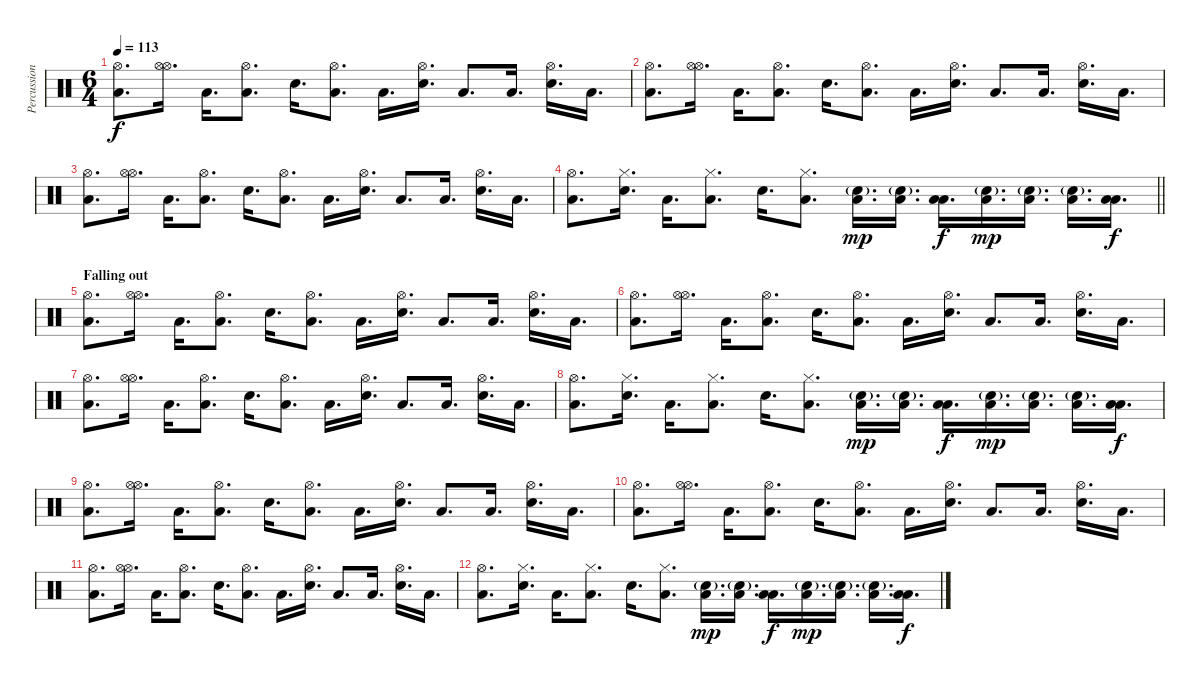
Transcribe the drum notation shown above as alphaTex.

\track ("Percussion" "Percussion") {instrument percussion}
\staff {score}
\articulation defaults
\ts (6 4)
\tempo 113
\clef neutral
\ks c
("Low Tom (hit)" "Hi-Hat (open)").8{d dy f} ("Hi-Hat (open)" "Hi-Hat (open)").16{d} "Low Floor Tom (hit)".16{d} ("Low Floor Tom (hit)" "Hi-Hat (open)").8{d} "Snare (hit) 2".16{d} ("Low Tom (hit)" "Hi-Hat (open)").8{d} "Low Tom (hit)".16{d} ("Hi-Hat (open)" "Snare (hit) 2").16{d} "Low Tom (hit)".8{d} "Low Tom (hit)".16{d} ("Hi-Hat (open)" "Snare (hit) 2").16{d} "Low Tom (hit)".16{d} |
("Low Tom (hit)" "Hi-Hat (open)").8{d} ("Hi-Hat (open)" "Hi-Hat (open)").16{d} "Low Floor Tom (hit)".16{d} ("Low Floor Tom (hit)" "Hi-Hat (open)").8{d} "Snare (hit) 2".16{d} ("Low Tom (hit)" "Hi-Hat (open)").8{d} "Low Tom (hit)".16{d} ("Hi-Hat (open)" "Snare (hit) 2").16{d} "Low Tom (hit)".8{d} "Low Tom (hit)".16{d} ("Hi-Hat (open)" "Snare (hit) 2").16{d} "Low Tom (hit)".16{d} |
("Low Tom (hit)" "Hi-Hat (open)").8{d} ("Hi-Hat (open)" "Hi-Hat (open)").16{d} "Low Floor Tom (hit)".16{d} ("Low Floor Tom (hit)" "Hi-Hat (open)").8{d} "Snare (hit) 2".16{d} ("Low Tom (hit)" "Hi-Hat (open)").8{d} "Low Tom (hit)".16{d} ("Hi-Hat (open)" "Snare (hit) 2").16{d} "Low Tom (hit)".8{d} "Low Tom (hit)".16{d} ("Hi-Hat (open)" "Snare (hit) 2").16{d} "Low Tom (hit)".16{d} |
\barLineRight lightlight
("Low Tom (hit)" "Hi-Hat (open)").8{d} ("Snare (hit) 2" "Hi-Hat (closed)").16{d} "Low Floor Tom (hit)".16{d} ("Low Floor Tom (hit)" "Hi-Hat (closed)").8{d} "Snare (hit) 2".16{d} ("Low Tom (hit)" "Hi-Hat (closed)").8{d} ("Low Tom (hit)" "Electric Snare (hit)"{g}).16{d dy mp} ("Low Tom (hit)" "Electric Snare (hit)"{g}).16{d} ("Low Tom (hit)" "Low Floor Tom (hit)").16{d dy f} ("Low Tom (hit)" "Electric Snare (hit)"{g}).16{d dy mp} ("Low Tom (hit)" "Electric Snare (hit)"{g}).16{d} ("Low Tom (hit)" "Electric Snare (hit)"{g}).16{d} ("Low Tom (hit)" "Low Floor Tom (hit)").16{d dy f} |
\section ("" "Falling out")
("Low Tom (hit)" "Hi-Hat (open)").8{d} ("Hi-Hat (open)" "Hi-Hat (open)").16{d} "Low Floor Tom (hit)".16{d} ("Low Floor Tom (hit)" "Hi-Hat (open)").8{d} "Snare (hit) 2".16{d} ("Low Tom (hit)" "Hi-Hat (open)").8{d} "Low Tom (hit)".16{d} ("Hi-Hat (open)" "Snare (hit) 2").16{d} "Low Tom (hit)".8{d} "Low Tom (hit)".16{d} ("Hi-Hat (open)" "Snare (hit) 2").16{d} "Low Tom (hit)".16{d} |
("Low Tom (hit)" "Hi-Hat (open)").8{d} ("Hi-Hat (open)" "Hi-Hat (open)").16{d} "Low Floor Tom (hit)".16{d} ("Low Floor Tom (hit)" "Hi-Hat (open)").8{d} "Snare (hit) 2".16{d} ("Low Tom (hit)" "Hi-Hat (open)").8{d} "Low Tom (hit)".16{d} ("Hi-Hat (open)" "Snare (hit) 2").16{d} "Low Tom (hit)".8{d} "Low Tom (hit)".16{d} ("Hi-Hat (open)" "Snare (hit) 2").16{d} "Low Tom (hit)".16{d} |
("Low Tom (hit)" "Hi-Hat (open)").8{d} ("Hi-Hat (open)" "Hi-Hat (open)").16{d} "Low Floor Tom (hit)".16{d} ("Low Floor Tom (hit)" "Hi-Hat (open)").8{d} "Snare (hit) 2".16{d} ("Low Tom (hit)" "Hi-Hat (open)").8{d} "Low Tom (hit)".16{d} ("Hi-Hat (open)" "Snare (hit) 2").16{d} "Low Tom (hit)".8{d} "Low Tom (hit)".16{d} ("Hi-Hat (open)" "Snare (hit) 2").16{d} "Low Tom (hit)".16{d} |
("Low Tom (hit)" "Hi-Hat (open)").8{d} ("Snare (hit) 2" "Hi-Hat (closed)").16{d} "Low Floor Tom (hit)".16{d} ("Low Floor Tom (hit)" "Hi-Hat (closed)").8{d} "Snare (hit) 2".16{d} ("Low Tom (hit)" "Hi-Hat (closed)").8{d} ("Low Tom (hit)" "Electric Snare (hit)"{g}).16{d dy mp} ("Low Tom (hit)" "Electric Snare (hit)"{g}).16{d} ("Low Tom (hit)" "Low Floor Tom (hit)").16{d dy f} ("Low Tom (hit)" "Electric Snare (hit)"{g}).16{d dy mp} ("Low Tom (hit)" "Electric Snare (hit)"{g}).16{d} ("Low Tom (hit)" "Electric Snare (hit)"{g}).16{d} ("Low Tom (hit)" "Low Floor Tom (hit)").16{d dy f} |
("Low Tom (hit)" "Hi-Hat (open)").8{d} ("Hi-Hat (open)" "Hi-Hat (open)").16{d} "Low Floor Tom (hit)".16{d} ("Low Floor Tom (hit)" "Hi-Hat (open)").8{d} "Snare (hit) 2".16{d} ("Low Tom (hit)" "Hi-Hat (open)").8{d} "Low Tom (hit)".16{d} ("Hi-Hat (open)" "Snare (hit) 2").16{d} "Low Tom (hit)".8{d} "Low Tom (hit)".16{d} ("Hi-Hat (open)" "Snare (hit) 2").16{d} "Low Tom (hit)".16{d} |
("Low Tom (hit)" "Hi-Hat (open)").8{d} ("Hi-Hat (open)" "Hi-Hat (open)").16{d} "Low Floor Tom (hit)".16{d} ("Low Floor Tom (hit)" "Hi-Hat (open)").8{d} "Snare (hit) 2".16{d} ("Low Tom (hit)" "Hi-Hat (open)").8{d} "Low Tom (hit)".16{d} ("Hi-Hat (open)" "Snare (hit) 2").16{d} "Low Tom (hit)".8{d} "Low Tom (hit)".16{d} ("Hi-Hat (open)" "Snare (hit) 2").16{d} "Low Tom (hit)".16{d} |
("Low Tom (hit)" "Hi-Hat (open)").8{d} ("Hi-Hat (open)" "Hi-Hat (open)").16{d} "Low Floor Tom (hit)".16{d} ("Low Floor Tom (hit)" "Hi-Hat (open)").8{d} "Snare (hit) 2".16{d} ("Low Tom (hit)" "Hi-Hat (open)").8{d} "Low Tom (hit)".16{d} ("Hi-Hat (open)" "Snare (hit) 2").16{d} "Low Tom (hit)".8{d} "Low Tom (hit)".16{d} ("Hi-Hat (open)" "Snare (hit) 2").16{d} "Low Tom (hit)".16{d} |
("Low Tom (hit)" "Hi-Hat (open)").8{d} ("Snare (hit) 2" "Hi-Hat (closed)").16{d} "Low Floor Tom (hit)".16{d} ("Low Floor Tom (hit)" "Hi-Hat (closed)").8{d} "Snare (hit) 2".16{d} ("Low Tom (hit)" "Hi-Hat (closed)").8{d} ("Low Tom (hit)" "Electric Snare (hit)"{g}).16{d dy mp} ("Low Tom (hit)" "Electric Snare (hit)"{g}).16{d} ("Low Tom (hit)" "Low Floor Tom (hit)").16{d dy f} ("Low Tom (hit)" "Electric Snare (hit)"{g}).16{d dy mp} ("Low Tom (hit)" "Electric Snare (hit)"{g}).16{d} ("Low Tom (hit)" "Electric Snare (hit)"{g}).16{d} ("Low Tom (hit)" "Low Floor Tom (hit)").16{d dy f}
